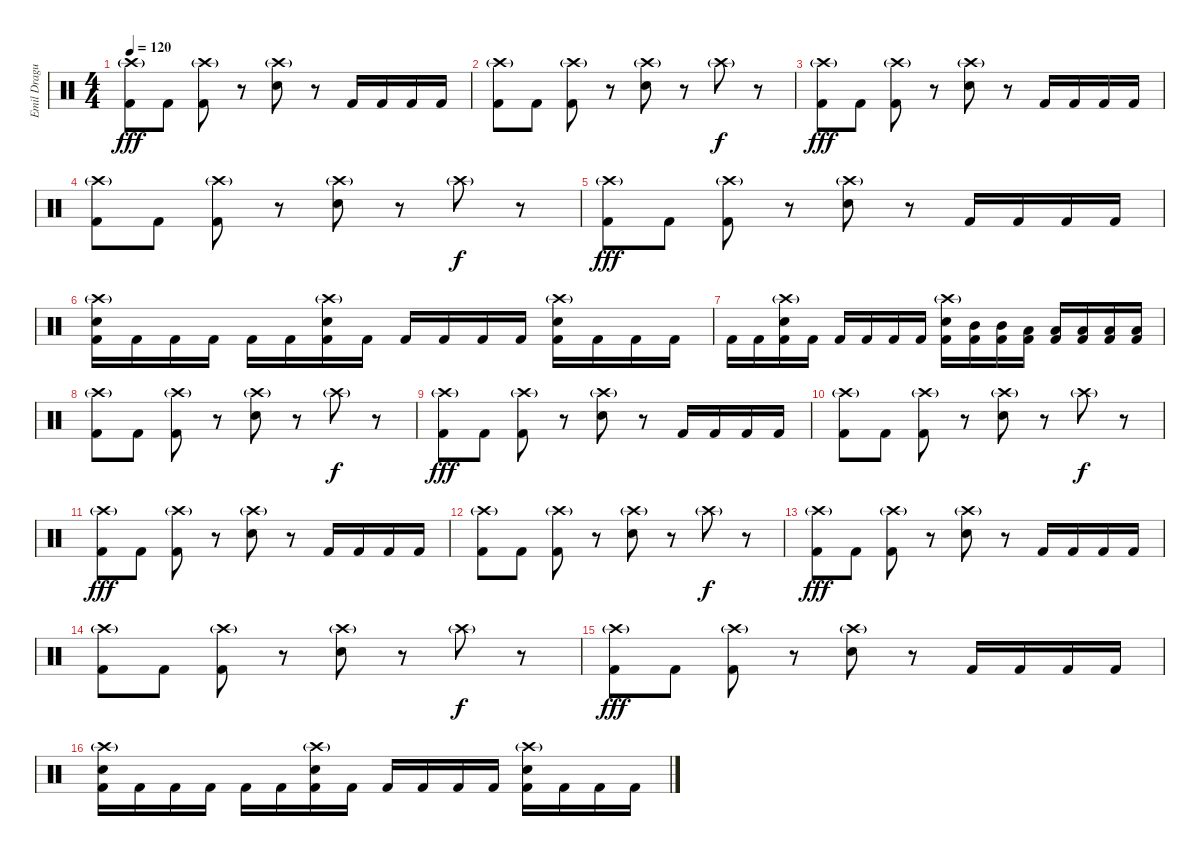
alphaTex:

\track ("Emil Dragutinovic" "Emil Dragu") {instrument percussion}
\staff {score}
\articulation defaults
\ts (4 4)
\tempo 120
\clef neutral
\ks c
("Crash high (hit)"{g} "Kick (hit) 2").8{dy fff} "Kick (hit) 2".8 ("Crash high (hit)"{g} "Kick (hit) 2").8 r.8 ("Crash high (hit)"{g} "Electric Snare (hit)").8 r.8 "Kick (hit) 2".16 "Kick (hit) 2".16 "Kick (hit) 2".16 "Kick (hit) 2".16 |
("Crash high (hit)"{g} "Kick (hit) 2").8 "Kick (hit) 2".8 ("Crash high (hit)"{g} "Kick (hit) 2").8 r.8 ("Crash high (hit)"{g} "Electric Snare (hit)").8 r.8 "Crash high (hit)"{g}.8{dy f} r.8 |
("Crash high (hit)"{g} "Kick (hit) 2").8{dy fff} "Kick (hit) 2".8 ("Crash high (hit)"{g} "Kick (hit) 2").8 r.8 ("Crash high (hit)"{g} "Electric Snare (hit)").8 r.8 "Kick (hit) 2".16 "Kick (hit) 2".16 "Kick (hit) 2".16 "Kick (hit) 2".16 |
("Crash high (hit)"{g} "Kick (hit) 2").8 "Kick (hit) 2".8 ("Crash high (hit)"{g} "Kick (hit) 2").8 r.8 ("Crash high (hit)"{g} "Electric Snare (hit)").8 r.8 "Crash high (hit)"{g}.8{dy f} r.8 |
("Crash high (hit)"{g} "Kick (hit) 2").8{dy fff} "Kick (hit) 2".8 ("Crash high (hit)"{g} "Kick (hit) 2").8 r.8 ("Crash high (hit)"{g} "Electric Snare (hit)").8 r.8 "Kick (hit) 2".16 "Kick (hit) 2".16 "Kick (hit) 2".16 "Kick (hit) 2".16 |
("Crash high (hit)"{g} "Electric Snare (hit)" "Kick (hit) 2").16 "Kick (hit) 2".16 "Kick (hit) 2".16 "Kick (hit) 2".16 "Kick (hit) 2".16 "Kick (hit) 2".16 ("Crash high (hit)"{g} "Electric Snare (hit)" "Kick (hit) 2").16 "Kick (hit) 2".16 "Kick (hit) 2".16 "Kick (hit) 2".16 "Kick (hit) 2".16 "Kick (hit) 2".16 ("Crash high (hit)"{g} "Electric Snare (hit)" "Kick (hit) 2").16 "Kick (hit) 2".16 "Kick (hit) 2".16 "Kick (hit) 2".16 |
"Kick (hit) 2".16 "Kick (hit) 2".16 ("Crash high (hit)"{g} "Electric Snare (hit)" "Kick (hit) 2").16 "Kick (hit) 2".16 "Kick (hit) 2".16 "Kick (hit) 2".16 "Kick (hit) 2".16 "Kick (hit) 2".16 ("Crash high (hit)"{g} "Electric Snare (hit)" "Kick (hit) 2").16 ("Mid Tom (hit)" "Kick (hit) 2").16 ("Mid Tom (hit)" "Kick (hit) 2").16 ("Low Tom (hit)" "Kick (hit) 2").16 ("Low Tom (hit)" "Kick (hit) 2").16 ("Low Floor Tom (hit)" "Kick (hit) 2").16 ("Low Floor Tom (hit)" "Kick (hit) 2").16 ("Low Floor Tom (hit)" "Kick (hit) 2").16 |
("Crash high (hit)"{g} "Kick (hit) 2").8 "Kick (hit) 2".8 ("Crash high (hit)"{g} "Kick (hit) 2").8 r.8 ("Crash high (hit)"{g} "Electric Snare (hit)").8 r.8 "Crash high (hit)"{g}.8{dy f} r.8 |
("Crash high (hit)"{g} "Kick (hit) 2").8{dy fff} "Kick (hit) 2".8 ("Crash high (hit)"{g} "Kick (hit) 2").8 r.8 ("Crash high (hit)"{g} "Electric Snare (hit)").8 r.8 "Kick (hit) 2".16 "Kick (hit) 2".16 "Kick (hit) 2".16 "Kick (hit) 2".16 |
("Crash high (hit)"{g} "Kick (hit) 2").8 "Kick (hit) 2".8 ("Crash high (hit)"{g} "Kick (hit) 2").8 r.8 ("Crash high (hit)"{g} "Electric Snare (hit)").8 r.8 "Crash high (hit)"{g}.8{dy f} r.8 |
("Crash high (hit)"{g} "Kick (hit) 2").8{dy fff} "Kick (hit) 2".8 ("Crash high (hit)"{g} "Kick (hit) 2").8 r.8 ("Crash high (hit)"{g} "Electric Snare (hit)").8 r.8 "Kick (hit) 2".16 "Kick (hit) 2".16 "Kick (hit) 2".16 "Kick (hit) 2".16 |
("Crash high (hit)"{g} "Kick (hit) 2").8 "Kick (hit) 2".8 ("Crash high (hit)"{g} "Kick (hit) 2").8 r.8 ("Crash high (hit)"{g} "Electric Snare (hit)").8 r.8 "Crash high (hit)"{g}.8{dy f} r.8 |
("Crash high (hit)"{g} "Kick (hit) 2").8{dy fff} "Kick (hit) 2".8 ("Crash high (hit)"{g} "Kick (hit) 2").8 r.8 ("Crash high (hit)"{g} "Electric Snare (hit)").8 r.8 "Kick (hit) 2".16 "Kick (hit) 2".16 "Kick (hit) 2".16 "Kick (hit) 2".16 |
("Crash high (hit)"{g} "Kick (hit) 2").8 "Kick (hit) 2".8 ("Crash high (hit)"{g} "Kick (hit) 2").8 r.8 ("Crash high (hit)"{g} "Electric Snare (hit)").8 r.8 "Crash high (hit)"{g}.8{dy f} r.8 |
("Crash high (hit)"{g} "Kick (hit) 2").8{dy fff} "Kick (hit) 2".8 ("Crash high (hit)"{g} "Kick (hit) 2").8 r.8 ("Crash high (hit)"{g} "Electric Snare (hit)").8 r.8 "Kick (hit) 2".16 "Kick (hit) 2".16 "Kick (hit) 2".16 "Kick (hit) 2".16 |
("Crash high (hit)"{g} "Electric Snare (hit)" "Kick (hit) 2").16 "Kick (hit) 2".16 "Kick (hit) 2".16 "Kick (hit) 2".16 "Kick (hit) 2".16 "Kick (hit) 2".16 ("Crash high (hit)"{g} "Electric Snare (hit)" "Kick (hit) 2").16 "Kick (hit) 2".16 "Kick (hit) 2".16 "Kick (hit) 2".16 "Kick (hit) 2".16 "Kick (hit) 2".16 ("Crash high (hit)"{g} "Electric Snare (hit)" "Kick (hit) 2").16 "Kick (hit) 2".16 "Kick (hit) 2".16 "Kick (hit) 2".16
